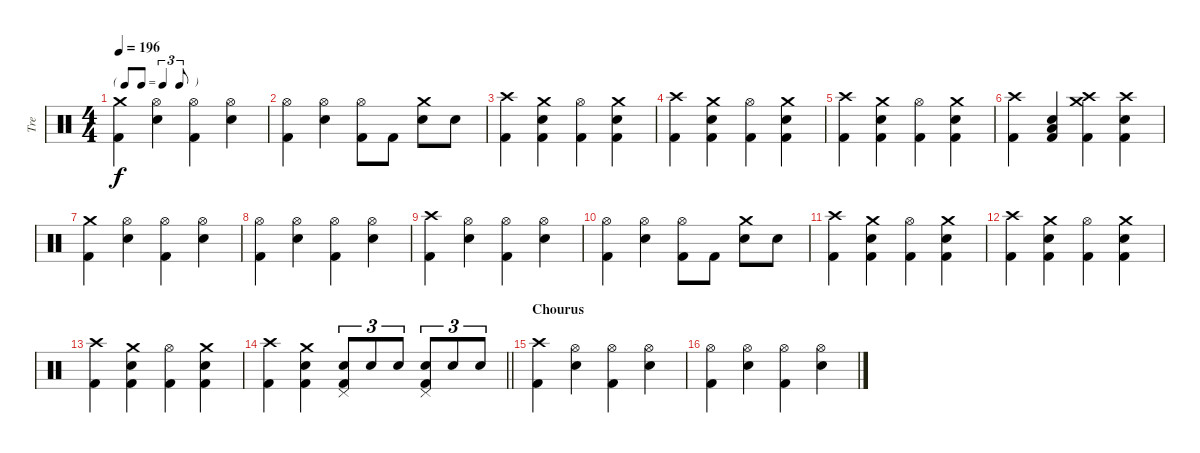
\track ("Tre" "Tre") {instrument percussion}
\staff {score}
\articulation defaults
\ts (4 4)
\tf triplet8th
\tempo 196
\clef neutral
\ks c
("Crash medium (hit)" "Kick (hit) 2").4{dy f} ("Hi-Hat (open)" "Snare (hit) 2").4 ("Hi-Hat (open)" "Kick (hit) 2").4 ("Hi-Hat (open)" "Snare (hit) 2").4 |
("Hi-Hat (open)" "Kick (hit) 2").4 ("Hi-Hat (open)" "Snare (hit) 2").4 ("Hi-Hat (open)" "Kick (hit) 2").8 "Kick (hit) 2".8 ("Crash medium (hit)" "Snare (hit) 2").8 "Snare (hit) 2".8 |
("Crash high (hit)" "Kick (hit) 2").4 ("Crash medium (hit)" "Snare (hit) 2" "Kick (hit) 2").4 ("Hi-Hat (open)" "Kick (hit) 2").4 ("Crash medium (hit)" "Snare (hit) 2" "Kick (hit) 2").4 |
("Crash high (hit)" "Kick (hit) 2").4 ("Crash medium (hit)" "Snare (hit) 2" "Kick (hit) 2").4 ("Hi-Hat (open)" "Kick (hit) 2").4 ("Crash medium (hit)" "Snare (hit) 2" "Kick (hit) 2").4 |
("Crash high (hit)" "Kick (hit) 2").4 ("Crash medium (hit)" "Snare (hit) 2" "Kick (hit) 2").4 ("Hi-Hat (open)" "Kick (hit) 2").4 ("Crash medium (hit)" "Snare (hit) 2" "Kick (hit) 2").4 |
("Crash high (hit)" "Kick (hit) 2").4 ("Snare (hit) 2" "Low Floor Tom (hit)" "Kick (hit) 2").4 ("Crash high (hit)" "Crash medium (hit)" "Kick (hit) 2").4 ("Crash high (hit)" "Snare (hit) 2" "Kick (hit) 2").4 |
("Crash medium (hit)" "Kick (hit) 2").4 ("Hi-Hat (open)" "Snare (hit) 2").4 ("Hi-Hat (open)" "Kick (hit) 2").4 ("Hi-Hat (open)" "Snare (hit) 2").4 |
("Hi-Hat (open)" "Kick (hit) 2").4 ("Hi-Hat (open)" "Snare (hit) 2").4 ("Hi-Hat (open)" "Kick (hit) 2").4 ("Hi-Hat (open)" "Snare (hit) 2").4 |
("Crash high (hit)" "Kick (hit) 2").4 ("Hi-Hat (open)" "Snare (hit) 2").4 ("Hi-Hat (open)" "Kick (hit) 2").4 ("Hi-Hat (open)" "Snare (hit) 2").4 |
("Hi-Hat (open)" "Kick (hit) 2").4 ("Hi-Hat (open)" "Snare (hit) 2").4 ("Hi-Hat (open)" "Kick (hit) 2").8 "Kick (hit) 2".8 ("Crash medium (hit)" "Snare (hit) 2").8 "Snare (hit) 2".8 |
("Crash high (hit)" "Kick (hit) 2").4 ("Crash medium (hit)" "Snare (hit) 2" "Kick (hit) 2").4 ("Hi-Hat (open)" "Kick (hit) 2").4 ("Crash medium (hit)" "Snare (hit) 2" "Kick (hit) 2").4 |
("Crash high (hit)" "Kick (hit) 2").4 ("Crash medium (hit)" "Snare (hit) 2" "Kick (hit) 2").4 ("Hi-Hat (open)" "Kick (hit) 2").4 ("Crash medium (hit)" "Snare (hit) 2" "Kick (hit) 2").4 |
("Crash high (hit)" "Kick (hit) 2").4 ("Crash medium (hit)" "Snare (hit) 2" "Kick (hit) 2").4 ("Hi-Hat (open)" "Kick (hit) 2").4 ("Crash medium (hit)" "Snare (hit) 2" "Kick (hit) 2").4 |
\barLineRight lightlight
("Crash high (hit)" "Kick (hit) 2").4 ("Crash medium (hit)" "Snare (hit) 2" "Kick (hit) 2").4 ("Snare (hit) 2" "Pedal Hi-Hat (hit)" "Kick (hit) 2").8{tu (3 2)} "Snare (hit) 2".8{tu (3 2)} "Snare (hit) 2".8{tu (3 2)} ("Snare (hit) 2" "Pedal Hi-Hat (hit)" "Kick (hit) 2").8{tu (3 2)} "Snare (hit) 2".8{tu (3 2)} "Snare (hit) 2".8{tu (3 2)} |
\section ("" "Chourus")
("Crash high (hit)" "Kick (hit) 2").4 ("Hi-Hat (open)" "Snare (hit) 2").4 ("Hi-Hat (open)" "Kick (hit) 2").4 ("Hi-Hat (open)" "Snare (hit) 2").4 |
("Hi-Hat (open)" "Kick (hit) 2").4 ("Hi-Hat (open)" "Snare (hit) 2").4 ("Hi-Hat (open)" "Kick (hit) 2").4 ("Hi-Hat (open)" "Snare (hit) 2").4
